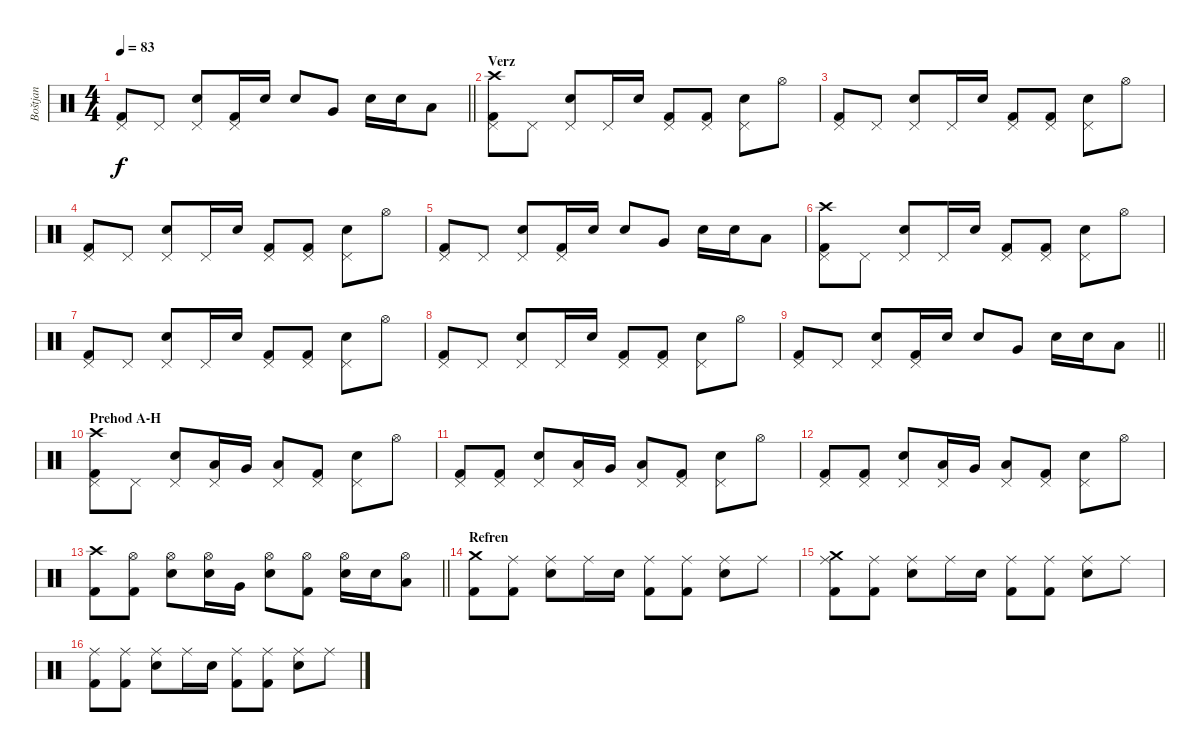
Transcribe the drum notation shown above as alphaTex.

\track ("Boštjan" "Boštjan") {instrument percussion}
\staff {score}
\articulation defaults
\ts (4 4)
\tempo 83
\clef neutral
\barLineRight lightlight
\ks c
("Pedal Hi-Hat (hit)" "Kick (hit) 2").8{dy f} "Pedal Hi-Hat (hit)".8 ("Pedal Hi-Hat (hit)" "Snare (hit) 2").8 ("Pedal Hi-Hat (hit)" "Kick (hit) 2").16 "Snare (hit) 2".16 "Snare (hit) 2".8 "Very Low Tom (hit)".8 "Snare (hit) 2".16 "Snare (hit) 2".16 "Low Floor Tom (hit)".8 |
\section ("" "Verz")
("Pedal Hi-Hat (hit)" "Crash high (hit)" "Kick (hit) 2").8 "Pedal Hi-Hat (hit)".8 ("Pedal Hi-Hat (hit)" "Snare (hit) 2").8 "Pedal Hi-Hat (hit)".16 "Snare (hit) 2".16 ("Pedal Hi-Hat (hit)" "Kick (hit) 2").8 ("Pedal Hi-Hat (hit)" "Kick (hit) 2").8 ("Pedal Hi-Hat (hit)" "Snare (hit) 2").8 "Hi-Hat (open)".8 |
("Pedal Hi-Hat (hit)" "Kick (hit) 2").8 "Pedal Hi-Hat (hit)".8 ("Pedal Hi-Hat (hit)" "Snare (hit) 2").8 "Pedal Hi-Hat (hit)".16 "Snare (hit) 2".16 ("Pedal Hi-Hat (hit)" "Kick (hit) 2").8 ("Pedal Hi-Hat (hit)" "Kick (hit) 2").8 ("Pedal Hi-Hat (hit)" "Snare (hit) 2").8 "Hi-Hat (open)".8 |
("Pedal Hi-Hat (hit)" "Kick (hit) 2").8 "Pedal Hi-Hat (hit)".8 ("Pedal Hi-Hat (hit)" "Snare (hit) 2").8 "Pedal Hi-Hat (hit)".16 "Snare (hit) 2".16 ("Pedal Hi-Hat (hit)" "Kick (hit) 2").8 ("Pedal Hi-Hat (hit)" "Kick (hit) 2").8 ("Pedal Hi-Hat (hit)" "Snare (hit) 2").8 "Hi-Hat (open)".8 |
("Pedal Hi-Hat (hit)" "Kick (hit) 2").8 "Pedal Hi-Hat (hit)".8 ("Pedal Hi-Hat (hit)" "Snare (hit) 2").8 ("Pedal Hi-Hat (hit)" "Kick (hit) 2").16 "Snare (hit) 2".16 "Snare (hit) 2".8 "Very Low Tom (hit)".8 "Snare (hit) 2".16 "Snare (hit) 2".16 "Low Floor Tom (hit)".8 |
("Pedal Hi-Hat (hit)" "Crash high (hit)" "Kick (hit) 2").8 "Pedal Hi-Hat (hit)".8 ("Pedal Hi-Hat (hit)" "Snare (hit) 2").8 "Pedal Hi-Hat (hit)".16 "Snare (hit) 2".16 ("Pedal Hi-Hat (hit)" "Kick (hit) 2").8 ("Pedal Hi-Hat (hit)" "Kick (hit) 2").8 ("Pedal Hi-Hat (hit)" "Snare (hit) 2").8 "Hi-Hat (open)".8 |
("Pedal Hi-Hat (hit)" "Kick (hit) 2").8 "Pedal Hi-Hat (hit)".8 ("Pedal Hi-Hat (hit)" "Snare (hit) 2").8 "Pedal Hi-Hat (hit)".16 "Snare (hit) 2".16 ("Pedal Hi-Hat (hit)" "Kick (hit) 2").8 ("Pedal Hi-Hat (hit)" "Kick (hit) 2").8 ("Pedal Hi-Hat (hit)" "Snare (hit) 2").8 "Hi-Hat (open)".8 |
("Pedal Hi-Hat (hit)" "Kick (hit) 2").8 "Pedal Hi-Hat (hit)".8 ("Pedal Hi-Hat (hit)" "Snare (hit) 2").8 "Pedal Hi-Hat (hit)".16 "Snare (hit) 2".16 ("Pedal Hi-Hat (hit)" "Kick (hit) 2").8 ("Pedal Hi-Hat (hit)" "Kick (hit) 2").8 ("Pedal Hi-Hat (hit)" "Snare (hit) 2").8 "Hi-Hat (open)".8 |
\barLineRight lightlight
("Pedal Hi-Hat (hit)" "Kick (hit) 2").8 "Pedal Hi-Hat (hit)".8 ("Pedal Hi-Hat (hit)" "Snare (hit) 2").8 ("Pedal Hi-Hat (hit)" "Kick (hit) 2").16 "Snare (hit) 2".16 "Snare (hit) 2".8 "Very Low Tom (hit)".8 "Snare (hit) 2".16 "Snare (hit) 2".16 "Low Floor Tom (hit)".8 |
\section ("" "Prehod A-H")
("Pedal Hi-Hat (hit)" "Crash high (hit)" "Kick (hit) 2").8 "Pedal Hi-Hat (hit)".8 ("Pedal Hi-Hat (hit)" "Snare (hit) 2").8 ("Pedal Hi-Hat (hit)" "Low Tom (hit)").16 "Very Low Tom (hit)".16 ("Pedal Hi-Hat (hit)" "Low Floor Tom (hit)").8 ("Pedal Hi-Hat (hit)" "Kick (hit) 2").8 ("Pedal Hi-Hat (hit)" "Snare (hit) 2").8 "Hi-Hat (open)".8 |
("Pedal Hi-Hat (hit)" "Kick (hit) 2").8 ("Pedal Hi-Hat (hit)" "Kick (hit) 2").8 ("Pedal Hi-Hat (hit)" "Snare (hit) 2").8 ("Pedal Hi-Hat (hit)" "Low Tom (hit)").16 "Very Low Tom (hit)".16 ("Pedal Hi-Hat (hit)" "Low Floor Tom (hit)").8 ("Pedal Hi-Hat (hit)" "Kick (hit) 2").8 ("Pedal Hi-Hat (hit)" "Snare (hit) 2").8 "Hi-Hat (open)".8 |
("Pedal Hi-Hat (hit)" "Kick (hit) 2").8 ("Pedal Hi-Hat (hit)" "Kick (hit) 2").8 ("Pedal Hi-Hat (hit)" "Snare (hit) 2").8 ("Pedal Hi-Hat (hit)" "Low Tom (hit)").16 "Very Low Tom (hit)".16 ("Pedal Hi-Hat (hit)" "Low Floor Tom (hit)").8 ("Pedal Hi-Hat (hit)" "Kick (hit) 2").8 ("Pedal Hi-Hat (hit)" "Snare (hit) 2").8 "Hi-Hat (open)".8 |
\barLineRight lightlight
("Crash high (hit)" "Kick (hit) 2").8 ("Hi-Hat (open)" "Kick (hit) 2").8 ("Hi-Hat (open)" "Snare (hit) 2").8 ("Hi-Hat (open)" "Snare (hit) 2").16 "Very Low Tom (hit)".16 ("Hi-Hat (open)" "Snare (hit) 2").8 ("Hi-Hat (open)" "Kick (hit) 2").8 ("Hi-Hat (open)" "Snare (hit) 2").16 "Snare (hit) 2".16 ("Hi-Hat (open)" "Low Floor Tom (hit)").8 |
\section ("" "Refren")
("Crash medium (hit)" "Kick (hit) 2").8 ("Ride (middle)" "Kick (hit) 2").8 ("Ride (middle)" "Snare (hit) 2").8 "Ride (middle)".16 "Snare (hit) 2".16 ("Ride (middle)" "Kick (hit) 2").8 ("Ride (middle)" "Kick (hit) 2").8 ("Ride (middle)" "Snare (hit) 2").8 "Ride (middle)".8 |
("Ride (middle)" "Crash medium (hit)" "Kick (hit) 2").8 ("Ride (middle)" "Kick (hit) 2").8 ("Ride (middle)" "Snare (hit) 2").8 "Ride (middle)".16 "Snare (hit) 2".16 ("Ride (middle)" "Kick (hit) 2").8 ("Ride (middle)" "Kick (hit) 2").8 ("Ride (middle)" "Snare (hit) 2").8 "Ride (middle)".8 |
("Ride (middle)" "Kick (hit) 2").8 ("Ride (middle)" "Kick (hit) 2").8 ("Ride (middle)" "Snare (hit) 2").8 "Ride (middle)".16 "Snare (hit) 2".16 ("Ride (middle)" "Kick (hit) 2").8 ("Ride (middle)" "Kick (hit) 2").8 ("Ride (middle)" "Snare (hit) 2").8 "Ride (middle)".8
